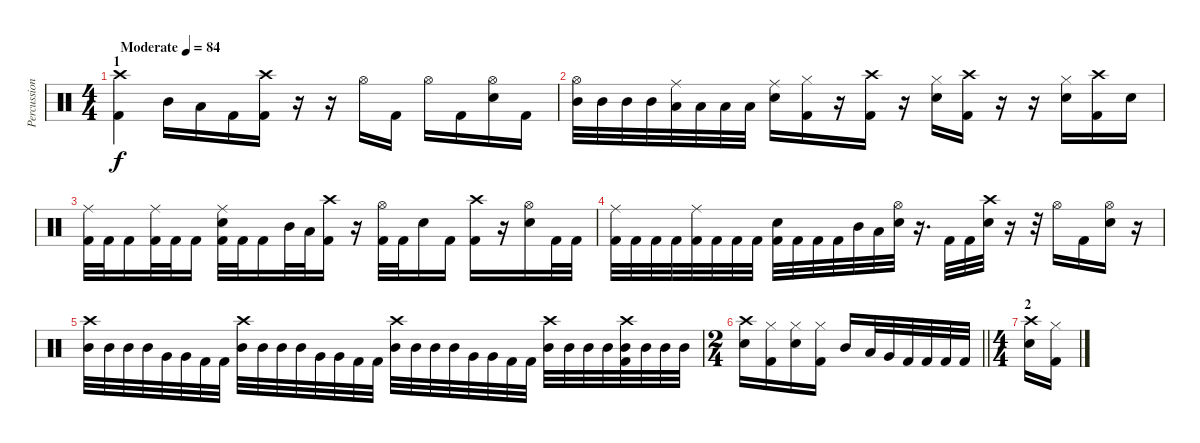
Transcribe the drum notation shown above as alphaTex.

\track ("Percussion" "Percussion") {instrument percussion}
\staff {score}
\articulation defaults
\ts (4 4)
\section ("" "1")
\tempo (84 "Moderate")
\clef neutral
\ks c
("Crash high (hit)" "Kick (hit) 2").4{dy f} "Mid Tom (hit)".16 "Low Tom (hit)".16 "Kick (hit) 2".16 ("Crash high (hit)" "Kick (hit) 2").16 r.16 r.16 "Hi-Hat (open)".16 "Kick (hit) 2".16 "Hi-Hat (open)".16 "Kick (hit) 2".16 ("Hi-Hat (open)" "Snare (hit) 2").16 "Kick (hit) 2".16 |
("Hi-Hat (open)" "Mid Tom (hit)").32 "Mid Tom (hit)".32 "Mid Tom (hit)".32 "Mid Tom (hit)".32 ("Ride (middle)" "Low Tom (hit)").32 "Low Tom (hit)".32 "Low Tom (hit)".32 "Low Tom (hit)".32 ("Ride (middle)" "Snare (hit) 2").16 ("Hi-Hat (closed)" "Kick (hit) 2").16 r.16 ("Crash high (hit)" "Kick (hit) 2").16 r.16 ("Hi-Hat (closed)" "Snare (hit) 2").16 ("Crash high (hit)" "Kick (hit) 2").16 r.16 r.16 ("Hi-Hat (closed)" "Snare (hit) 2").16 ("Crash high (hit)" "Kick (hit) 2").16 "Snare (hit) 2".16 |
("Ride (middle)" "Kick (hit) 2").32 "Kick (hit) 2".32 "Kick (hit) 2".16 ("Ride (middle)" "Kick (hit) 2").32 "Kick (hit) 2".32 "Kick (hit) 2".16 ("Ride (middle)" "Snare (hit) 2" "Kick (hit) 2").32 "Kick (hit) 2".32 "Kick (hit) 2".16 "Mid Tom (hit)".32 "Low Tom (hit)".32 ("Crash high (hit)" "Kick (hit) 2").16 r.16 ("Hi-Hat (open)" "Kick (hit) 2").32 "Kick (hit) 2".32 "Snare (hit) 2".16 "Kick (hit) 2".16 ("Crash high (hit)" "Kick (hit) 2").16 r.16 ("Hi-Hat (open)" "Snare (hit) 2").16 "Kick (hit) 2".32 "Kick (hit) 2".32 |
("Ride (middle)" "Kick (hit) 2").32 "Kick (hit) 2".32 "Kick (hit) 2".32 "Kick (hit) 2".32 ("Ride (middle)" "Kick (hit) 2").32 "Kick (hit) 2".32 "Kick (hit) 2".32 "Kick (hit) 2".32 ("Snare (hit) 2" "Kick (hit) 2").32 "Kick (hit) 2".32 "Kick (hit) 2".32 "Kick (hit) 2".32 "Mid Tom (hit)".32 "Low Tom (hit)".32 ("Hi-Hat (open)" "Snare (hit) 2").32 r.16{d} "Kick (hit) 2".32 "Kick (hit) 2".32 ("Crash high (hit)" "Snare (hit) 2").32 r.16 r.32 "Hi-Hat (open)".16 "Kick (hit) 2".16 ("Hi-Hat (open)" "Snare (hit) 2").16 r.16 |
("Crash high (hit)" "Mid Tom (hit)").32 "Mid Tom (hit)".32 "Mid Tom (hit)".32 "Mid Tom (hit)".32 "Very Low Tom (hit)".32 "Very Low Tom (hit)".32 "Kick (hit) 2".32 "Kick (hit) 2".32 ("Crash high (hit)" "Mid Tom (hit)").32 "Mid Tom (hit)".32 "Mid Tom (hit)".32 "Mid Tom (hit)".32 "Very Low Tom (hit)".32 "Very Low Tom (hit)".32 "Kick (hit) 2".32 "Kick (hit) 2".32 ("Crash high (hit)" "Mid Tom (hit)").32 "Mid Tom (hit)".32 "Mid Tom (hit)".32 "Mid Tom (hit)".32 "Very Low Tom (hit)".32 "Very Low Tom (hit)".32 "Kick (hit) 2".32 "Kick (hit) 2".32 ("Crash high (hit)" "Mid Tom (hit)").32 "Mid Tom (hit)".32 "Mid Tom (hit)".32 "Mid Tom (hit)".32 ("Crash high (hit)" "Mid Tom (hit)" "Kick (hit) 2").32 "Mid Tom (hit)".32 "Mid Tom (hit)".32 "Mid Tom (hit)".32 |
\ts (2 4)
\barLineRight lightlight
("Crash high (hit)" "Snare (hit) 2").16 ("Hi-Hat (closed)" "Kick (hit) 2").16 ("Hi-Hat (closed)" "Snare (hit) 2").16 ("Hi-Hat (closed)" "Kick (hit) 2").16 "Mid Tom (hit)".16 "Low Tom (hit)".32 "Very Low Tom (hit)".32 "Kick (hit) 2".32 "Kick (hit) 2".32 "Kick (hit) 2".32 "Kick (hit) 2".32 |
\ts (4 4)
\section ("" "2")
("Crash high (hit)" "Snare (hit) 2").16 ("Hi-Hat (closed)" "Kick (hit) 2").16
